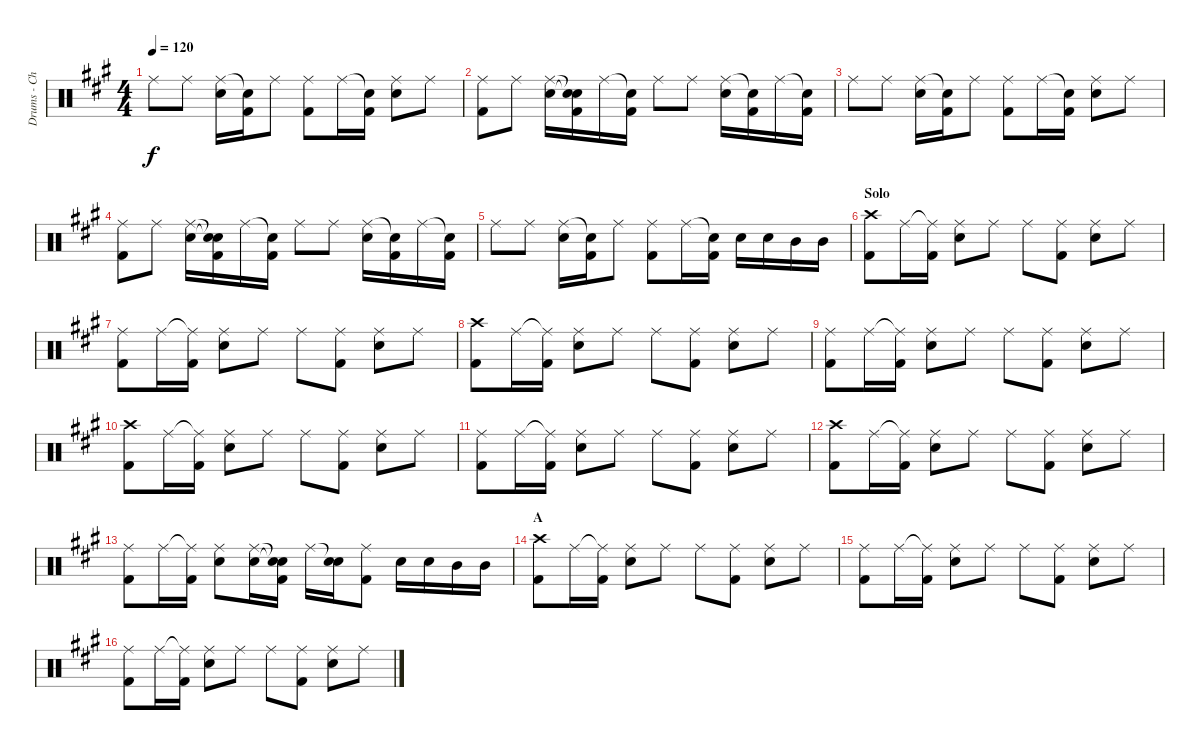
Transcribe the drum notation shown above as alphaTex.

\track ("Drums - Chad S" "Drums - Ch") {instrument percussion}
\staff {score}
\articulation defaults
\ts (4 4)
\tempo 120
\clef neutral
\ks f#minor "Ride (middle)".8{dy f} "Ride (middle)".8
("Ride (middle)" "Snare (hit) 2").16 ("Snare (hit)"{t} "Kick (hit) 2").16 "Ride (middle)".8 ("Ride (middle)" "Kick (hit) 2").8 "Ride (middle)".16 ("Snare (hit)"{t} "Kick (hit) 2").16 ("Ride (middle)" "Snare (hit) 2").8 "Ride (middle)".8 |
("Ride (middle)" "Kick (hit) 2").8 "Ride (middle)".8 ("Ride (middle)" "Snare (hit) 2").16 ("Snare (hit)"{t} "Snare (hit)"{t} "Kick (hit) 2").16 "Ride (middle)".16 ("Snare (hit)"{t} "Kick (hit) 2").16 "Ride (middle)".8 "Ride (middle)".8 ("Ride (middle)" "Snare (hit) 2").16 ("Snare (hit)"{t} "Kick (hit) 2").16 "Ride (middle)".16 ("Snare (hit)"{t} "Kick (hit) 2").16 |
"Ride (middle)".8 "Ride (middle)".8 ("Ride (middle)" "Snare (hit) 2").16 ("Snare (hit)"{t} "Kick (hit) 2").16 "Ride (middle)".8 ("Ride (middle)" "Kick (hit) 2").8 "Ride (middle)".16 ("Snare (hit)"{t} "Kick (hit) 2").16 ("Ride (middle)" "Snare (hit) 2").8 "Ride (middle)".8 |
("Ride (middle)" "Kick (hit) 2").8 "Ride (middle)".8 ("Ride (middle)" "Snare (hit) 2").16 ("Snare (hit)"{t} "Snare (hit)"{t} "Kick (hit) 2").16 "Ride (middle)".16 ("Snare (hit)"{t} "Kick (hit) 2").16 "Ride (middle)".8 "Ride (middle)".8 ("Ride (middle)" "Snare (hit) 2").16 ("Snare (hit)"{t} "Kick (hit) 2").16 "Ride (middle)".16 ("Snare (hit)"{t} "Kick (hit) 2").16 |
"Ride (middle)".8 "Ride (middle)".8 ("Ride (middle)" "Snare (hit) 2").16 ("Snare (hit)"{t} "Kick (hit) 2").16 "Ride (middle)".8 ("Ride (middle)" "Kick (hit) 2").8 "Ride (middle)".16 ("Snare (hit)"{t} "Kick (hit) 2").16 "Snare (hit) 2".16 "Snare (hit) 2".16 "Mid Tom (hit)".16 "Mid Tom (hit)".16 |
\section ("" "Solo")
("Crash high (hit)" "Kick (hit) 2").8 "Ride (middle)".16 ("Ride (middle)"{t} "Kick (hit) 2").16 ("Ride (middle)" "Snare (hit) 2").8 "Ride (middle)".8 "Ride (middle)".8 ("Ride (middle)" "Kick (hit) 2").8 ("Ride (middle)" "Snare (hit) 2").8 "Ride (middle)".8 |
("Ride (middle)" "Kick (hit) 2").8 "Ride (middle)".16 ("Ride (middle)"{t} "Kick (hit) 2").16 ("Ride (middle)" "Snare (hit) 2").8 "Ride (middle)".8 "Ride (middle)".8 ("Ride (middle)" "Kick (hit) 2").8 ("Ride (middle)" "Snare (hit) 2").8 "Ride (middle)".8 |
("Crash high (hit)" "Kick (hit) 2").8 "Ride (middle)".16 ("Ride (middle)"{t} "Kick (hit) 2").16 ("Ride (middle)" "Snare (hit) 2").8 "Ride (middle)".8 "Ride (middle)".8 ("Ride (middle)" "Kick (hit) 2").8 ("Ride (middle)" "Snare (hit) 2").8 "Ride (middle)".8 |
("Ride (middle)" "Kick (hit) 2").8 "Ride (middle)".16 ("Ride (middle)"{t} "Kick (hit) 2").16 ("Ride (middle)" "Snare (hit) 2").8 "Ride (middle)".8 "Ride (middle)".8 ("Ride (middle)" "Kick (hit) 2").8 ("Ride (middle)" "Snare (hit) 2").8 "Ride (middle)".8 |
("Crash high (hit)" "Kick (hit) 2").8 "Ride (middle)".16 ("Ride (middle)"{t} "Kick (hit) 2").16 ("Ride (middle)" "Snare (hit) 2").8 "Ride (middle)".8 "Ride (middle)".8 ("Ride (middle)" "Kick (hit) 2").8 ("Ride (middle)" "Snare (hit) 2").8 "Ride (middle)".8 |
("Ride (middle)" "Kick (hit) 2").8 "Ride (middle)".16 ("Ride (middle)"{t} "Kick (hit) 2").16 ("Ride (middle)" "Snare (hit) 2").8 "Ride (middle)".8 "Ride (middle)".8 ("Ride (middle)" "Kick (hit) 2").8 ("Ride (middle)" "Snare (hit) 2").8 "Ride (middle)".8 |
("Crash high (hit)" "Kick (hit) 2").8 "Ride (middle)".16 ("Ride (middle)"{t} "Kick (hit) 2").16 ("Ride (middle)" "Snare (hit) 2").8 "Ride (middle)".8 "Ride (middle)".8 ("Ride (middle)" "Kick (hit) 2").8 ("Ride (middle)" "Snare (hit) 2").8 "Ride (middle)".8 |
("Ride (middle)" "Kick (hit) 2").8 "Ride (middle)".16 ("Ride (middle)"{t} "Kick (hit) 2").16 ("Ride (middle)" "Snare (hit) 2").8 ("Ride (middle)" "Snare (hit) 2").16 ("Snare (hit)"{t} "Snare (hit)"{t} "Kick (hit) 2").16 "Ride (middle)".16 ("Snare (hit)"{t} "Snare (hit) 2").16 ("Ride (middle)" "Kick (hit) 2").8 "Snare (hit) 2".16 "Snare (hit) 2".16 "Mid Tom (hit)".16 "Mid Tom (hit)".16 |
\section ("" "A")
("Crash high (hit)" "Kick (hit) 2").8 "Ride (middle)".16 ("Ride (middle)"{t} "Kick (hit) 2").16 ("Ride (middle)" "Snare (hit) 2").8 "Ride (middle)".8 "Ride (middle)".8 ("Ride (middle)" "Kick (hit) 2").8 ("Ride (middle)" "Snare (hit) 2").8 "Ride (middle)".8 |
("Ride (middle)" "Kick (hit) 2").8 "Ride (middle)".16 ("Ride (middle)"{t} "Kick (hit) 2").16 ("Ride (middle)" "Snare (hit) 2").8 "Ride (middle)".8 "Ride (middle)".8 ("Ride (middle)" "Kick (hit) 2").8 ("Ride (middle)" "Snare (hit) 2").8 "Ride (middle)".8 |
("Ride (middle)" "Kick (hit) 2").8 "Ride (middle)".16 ("Ride (middle)"{t} "Kick (hit) 2").16 ("Ride (middle)" "Snare (hit) 2").8 "Ride (middle)".8 "Ride (middle)".8 ("Ride (middle)" "Kick (hit) 2").8 ("Ride (middle)" "Snare (hit) 2").8 "Ride (middle)".8
